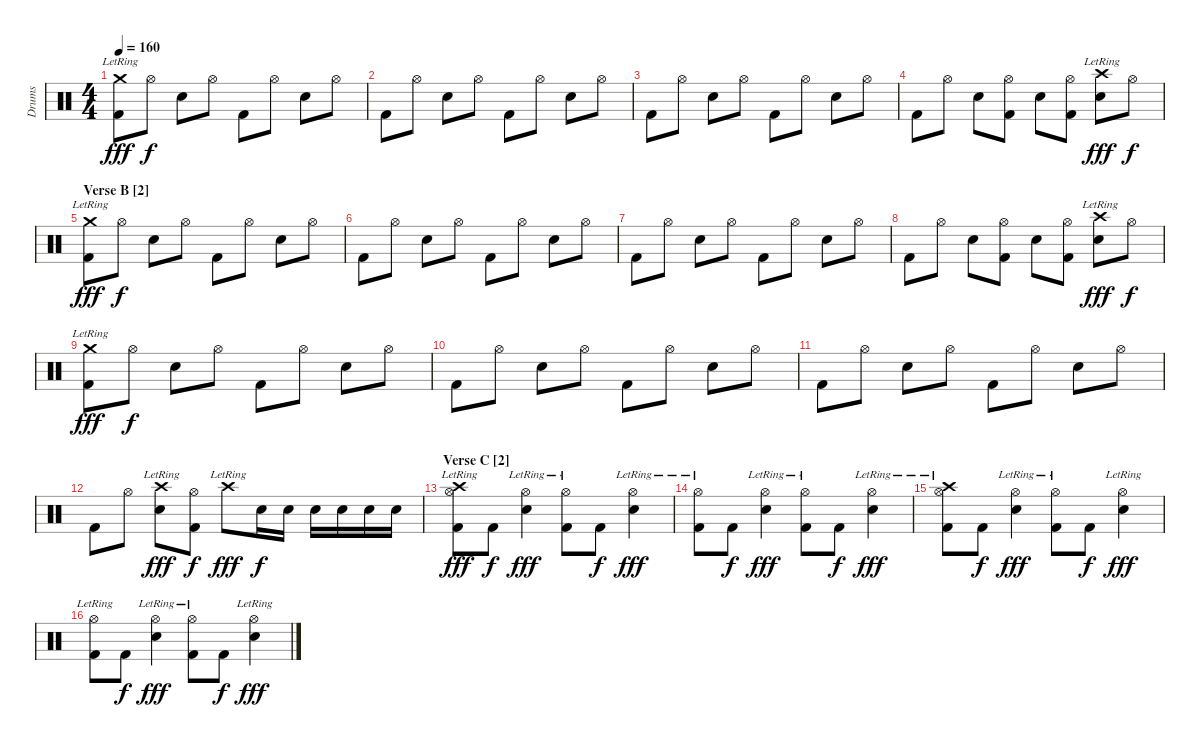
\track ("Drums" "Drums") {instrument percussion}
\staff {score}
\articulation defaults
\ts (4 4)
\tempo 160
\clef neutral
\ks c
("Crash medium (hit)"{lr} "Kick (hit) 2").8{dy fff} "Hi-Hat (open)".8{dy f} "Electric Snare (hit)".8 "Hi-Hat (open)".8 "Kick (hit) 2".8 "Hi-Hat (open)".8 "Electric Snare (hit)".8 "Hi-Hat (open)".8 |
"Kick (hit) 2".8 "Hi-Hat (open)".8 "Electric Snare (hit)".8 "Hi-Hat (open)".8 "Kick (hit) 2".8 "Hi-Hat (open)".8 "Electric Snare (hit)".8 "Hi-Hat (open)".8 |
"Kick (hit) 2".8 "Hi-Hat (open)".8 "Electric Snare (hit)".8 "Hi-Hat (open)".8 "Kick (hit) 2".8 "Hi-Hat (open)".8 "Electric Snare (hit)".8 "Hi-Hat (open)".8 |
"Kick (hit) 2".8 "Hi-Hat (open)".8 "Electric Snare (hit)".8 ("Hi-Hat (open)" "Kick (hit) 2").8 "Electric Snare (hit)".8 ("Hi-Hat (open)" "Kick (hit) 2").8 ("Crash high (hit)"{lr} "Electric Snare (hit)").8{dy fff} "Hi-Hat (open)".8{dy f} |
\section ("" "Verse B [2]")
("Crash medium (hit)"{lr} "Kick (hit) 2").8{dy fff} "Hi-Hat (open)".8{dy f} "Electric Snare (hit)".8 "Hi-Hat (open)".8 "Kick (hit) 2".8 "Hi-Hat (open)".8 "Electric Snare (hit)".8 "Hi-Hat (open)".8 |
"Kick (hit) 2".8 "Hi-Hat (open)".8 "Electric Snare (hit)".8 "Hi-Hat (open)".8 "Kick (hit) 2".8 "Hi-Hat (open)".8 "Electric Snare (hit)".8 "Hi-Hat (open)".8 |
"Kick (hit) 2".8 "Hi-Hat (open)".8 "Electric Snare (hit)".8 "Hi-Hat (open)".8 "Kick (hit) 2".8 "Hi-Hat (open)".8 "Electric Snare (hit)".8 "Hi-Hat (open)".8 |
"Kick (hit) 2".8 "Hi-Hat (open)".8 "Electric Snare (hit)".8 ("Hi-Hat (open)" "Kick (hit) 2").8 "Electric Snare (hit)".8 ("Hi-Hat (open)" "Kick (hit) 2").8 ("Crash high (hit)"{lr} "Electric Snare (hit)").8{dy fff} "Hi-Hat (open)".8{dy f} |
("Crash medium (hit)"{lr} "Kick (hit) 2").8{dy fff} "Hi-Hat (open)".8{dy f} "Electric Snare (hit)".8 "Hi-Hat (open)".8 "Kick (hit) 2".8 "Hi-Hat (open)".8 "Electric Snare (hit)".8 "Hi-Hat (open)".8 |
"Kick (hit) 2".8 "Hi-Hat (open)".8 "Electric Snare (hit)".8 "Hi-Hat (open)".8 "Kick (hit) 2".8 "Hi-Hat (open)".8 "Electric Snare (hit)".8 "Hi-Hat (open)".8 |
"Kick (hit) 2".8 "Hi-Hat (open)".8 "Electric Snare (hit)".8 "Hi-Hat (open)".8 "Kick (hit) 2".8 "Hi-Hat (open)".8 "Electric Snare (hit)".8 "Hi-Hat (open)".8 |
"Kick (hit) 2".8 "Hi-Hat (open)".8 ("Crash high (hit)"{lr} "Electric Snare (hit)").8{dy fff} ("Hi-Hat (open)" "Kick (hit) 2").8{dy f} "Crash high (hit)"{lr}.8{dy fff} "Electric Snare (hit)".16{dy f} "Electric Snare (hit)".16 "Electric Snare (hit)".16 "Electric Snare (hit)".16 "Electric Snare (hit)".16 "Electric Snare (hit)".16 |
\section ("" "Verse C [2]")
("Crash high (hit)" "Hi-Hat (open)"{lr} "Kick (hit) 2").8{dy fff} "Kick (hit) 2".8{dy f} ("Hi-Hat (open)"{lr} "Electric Snare (hit)").4{dy fff} ("Hi-Hat (open)"{lr} "Kick (hit) 2").8 "Kick (hit) 2".8{dy f} ("Hi-Hat (open)"{lr} "Electric Snare (hit)").4{dy fff} |
("Hi-Hat (open)"{lr} "Kick (hit) 2").8 "Kick (hit) 2".8{dy f} ("Hi-Hat (open)"{lr} "Electric Snare (hit)").4{dy fff} ("Hi-Hat (open)"{lr} "Kick (hit) 2").8 "Kick (hit) 2".8{dy f} ("Hi-Hat (open)"{lr} "Electric Snare (hit)").4{dy fff} |
("Crash high (hit)" "Hi-Hat (open)"{lr} "Kick (hit) 2").8 "Kick (hit) 2".8{dy f} ("Hi-Hat (open)"{lr} "Electric Snare (hit)").4{dy fff} ("Hi-Hat (open)"{lr} "Kick (hit) 2").8 "Kick (hit) 2".8{dy f} ("Hi-Hat (open)"{lr} "Electric Snare (hit)").4{dy fff} |
("Hi-Hat (open)"{lr} "Kick (hit) 2").8 "Kick (hit) 2".8{dy f} ("Hi-Hat (open)"{lr} "Electric Snare (hit)").4{dy fff} ("Hi-Hat (open)"{lr} "Kick (hit) 2").8 "Kick (hit) 2".8{dy f} ("Hi-Hat (open)"{lr} "Electric Snare (hit)").4{dy fff}
